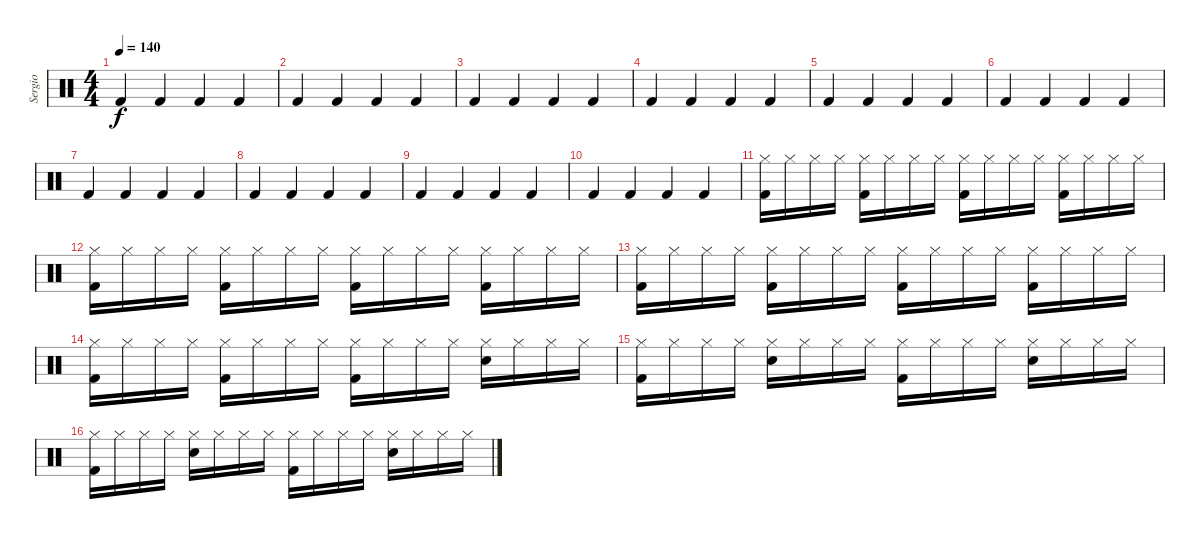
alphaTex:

\track ("Sergio" "Sergio") {instrument percussion}
\staff {score}
\articulation defaults
\ts (4 4)
\tempo 140
\clef neutral
\ks c "Kick (hit) 2".4{dy f} "Kick (hit) 2".4 "Kick (hit) 2".4 "Kick (hit) 2".4
|
"Kick (hit) 2".4 "Kick (hit) 2".4 "Kick (hit) 2".4 "Kick (hit) 2".4 |
"Kick (hit) 2".4 "Kick (hit) 2".4 "Kick (hit) 2".4 "Kick (hit) 2".4 |
"Kick (hit) 2".4 "Kick (hit) 2".4 "Kick (hit) 2".4 "Kick (hit) 2".4 |
"Kick (hit) 2".4 "Kick (hit) 2".4 "Kick (hit) 2".4 "Kick (hit) 2".4 |
"Kick (hit) 2".4 "Kick (hit) 2".4 "Kick (hit) 2".4 "Kick (hit) 2".4 |
"Kick (hit) 2".4 "Kick (hit) 2".4 "Kick (hit) 2".4 "Kick (hit) 2".4 |
"Kick (hit) 2".4 "Kick (hit) 2".4 "Kick (hit) 2".4 "Kick (hit) 2".4 |
"Kick (hit) 2".4 "Kick (hit) 2".4 "Kick (hit) 2".4 "Kick (hit) 2".4 |
"Kick (hit) 2".4 "Kick (hit) 2".4 "Kick (hit) 2".4 "Kick (hit) 2".4 |
("Hi-Hat (closed)" "Kick (hit) 2").16 "Hi-Hat (closed)".16 "Hi-Hat (closed)".16 "Hi-Hat (closed)".16 ("Hi-Hat (closed)" "Kick (hit) 2").16 "Hi-Hat (closed)".16 "Hi-Hat (closed)".16 "Hi-Hat (closed)".16 ("Hi-Hat (closed)" "Kick (hit) 2").16 "Hi-Hat (closed)".16 "Hi-Hat (closed)".16 "Hi-Hat (closed)".16 ("Hi-Hat (closed)" "Kick (hit) 2").16 "Hi-Hat (closed)".16 "Hi-Hat (closed)".16 "Hi-Hat (closed)".16 |
("Hi-Hat (closed)" "Kick (hit) 2").16 "Hi-Hat (closed)".16 "Hi-Hat (closed)".16 "Hi-Hat (closed)".16 ("Hi-Hat (closed)" "Kick (hit) 2").16 "Hi-Hat (closed)".16 "Hi-Hat (closed)".16 "Hi-Hat (closed)".16 ("Hi-Hat (closed)" "Kick (hit) 2").16 "Hi-Hat (closed)".16 "Hi-Hat (closed)".16 "Hi-Hat (closed)".16 ("Hi-Hat (closed)" "Kick (hit) 2").16 "Hi-Hat (closed)".16 "Hi-Hat (closed)".16 "Hi-Hat (closed)".16 |
("Hi-Hat (closed)" "Kick (hit) 2").16 "Hi-Hat (closed)".16 "Hi-Hat (closed)".16 "Hi-Hat (closed)".16 ("Hi-Hat (closed)" "Kick (hit) 2").16 "Hi-Hat (closed)".16 "Hi-Hat (closed)".16 "Hi-Hat (closed)".16 ("Hi-Hat (closed)" "Kick (hit) 2").16 "Hi-Hat (closed)".16 "Hi-Hat (closed)".16 "Hi-Hat (closed)".16 ("Hi-Hat (closed)" "Kick (hit) 2").16 "Hi-Hat (closed)".16 "Hi-Hat (closed)".16 "Hi-Hat (closed)".16 |
("Hi-Hat (closed)" "Kick (hit) 2").16 "Hi-Hat (closed)".16 "Hi-Hat (closed)".16 "Hi-Hat (closed)".16 ("Hi-Hat (closed)" "Kick (hit) 2").16 "Hi-Hat (closed)".16 "Hi-Hat (closed)".16 "Hi-Hat (closed)".16 ("Hi-Hat (closed)" "Kick (hit) 2").16 "Hi-Hat (closed)".16 "Hi-Hat (closed)".16 "Hi-Hat (closed)".16 ("Hi-Hat (closed)" "Electric Snare (hit)").16 "Hi-Hat (closed)".16 "Hi-Hat (closed)".16 "Hi-Hat (closed)".16 |
("Hi-Hat (closed)" "Kick (hit) 2").16 "Hi-Hat (closed)".16 "Hi-Hat (closed)".16 "Hi-Hat (closed)".16 ("Hi-Hat (closed)" "Electric Snare (hit)").16 "Hi-Hat (closed)".16 "Hi-Hat (closed)".16 "Hi-Hat (closed)".16 ("Hi-Hat (closed)" "Kick (hit) 2").16 "Hi-Hat (closed)".16 "Hi-Hat (closed)".16 "Hi-Hat (closed)".16 ("Hi-Hat (closed)" "Electric Snare (hit)").16 "Hi-Hat (closed)".16 "Hi-Hat (closed)".16 "Hi-Hat (closed)".16 |
("Hi-Hat (closed)" "Kick (hit) 2").16 "Hi-Hat (closed)".16 "Hi-Hat (closed)".16 "Hi-Hat (closed)".16 ("Hi-Hat (closed)" "Electric Snare (hit)").16 "Hi-Hat (closed)".16 "Hi-Hat (closed)".16 "Hi-Hat (closed)".16 ("Hi-Hat (closed)" "Kick (hit) 2").16 "Hi-Hat (closed)".16 "Hi-Hat (closed)".16 "Hi-Hat (closed)".16 ("Hi-Hat (closed)" "Electric Snare (hit)").16 "Hi-Hat (closed)".16 "Hi-Hat (closed)".16 "Hi-Hat (closed)".16
